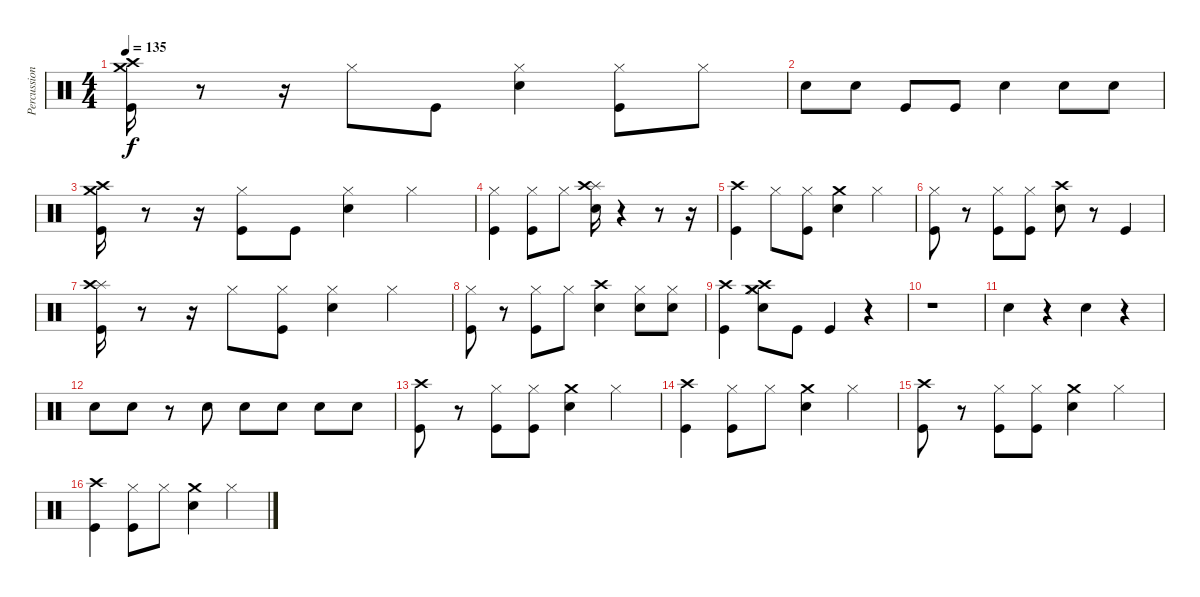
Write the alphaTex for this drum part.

\track ("Percussions" "Percussion") {instrument percussion}
\staff {score}
\articulation defaults
\ts (4 4)
\tempo 135
\clef neutral
\ks c
("Crash medium (hit)" "Crash high (hit)" "Kick (hit)").16{dy f} r.8 r.16 "Hi-Hat (closed)".8 "Kick (hit)".8 ("Hi-Hat (closed)" "Snare (hit) 2").4 ("Hi-Hat (closed)" "Kick (hit)").8 "Hi-Hat (closed)".8 |
"Snare (hit) 2".8 "Snare (hit) 2".8 "Kick (hit)".8 "Kick (hit)".8 "Snare (hit) 2".4 "Snare (hit) 2".8 "Snare (hit) 2".8 |
("Crash medium (hit)" "Kick (hit)" "Crash high (hit)").16 r.8 r.16 ("Hi-Hat (closed)" "Kick (hit)").8 "Kick (hit)".8 ("Hi-Hat (closed)" "Snare (hit) 2").4 "Hi-Hat (closed)".4 |
("Hi-Hat (closed)" "Kick (hit)").4 ("Hi-Hat (closed)" "Kick (hit)").8 "Hi-Hat (closed)".8 ("Splash (hit)" "Crash high (hit)" "Snare (hit) 2").16 r.4 r.8 r.16 |
("Crash high (hit)" "Kick (hit)").4 "Hi-Hat (closed)".8 ("Kick (hit)" "Hi-Hat (closed)").8 ("Snare (hit) 2" "Crash medium (hit)").4 "Hi-Hat (closed)".4 |
("Hi-Hat (closed)" "Kick (hit)").8 r.8 ("Kick (hit)" "Hi-Hat (closed)").8 ("Hi-Hat (closed)" "Kick (hit)").8 ("Crash high (hit)" "Snare (hit) 2").8 r.8 "Kick (hit)".4 |
("Splash (hit)" "Kick (hit)" "Crash high (hit)").16 r.8 r.16 "Hi-Hat (closed)".8 ("Kick (hit)" "Hi-Hat (closed)").8 ("Hi-Hat (closed)" "Snare (hit) 2").4 "Hi-Hat (closed)".4 |
("Hi-Hat (closed)" "Kick (hit)").8 r.8 ("Hi-Hat (closed)" "Kick (hit)").8 "Hi-Hat (closed)".8 ("Crash high (hit)" "Snare (hit) 2").4 ("Hi-Hat (closed)" "Snare (hit) 2").8 ("Hi-Hat (closed)" "Snare (hit) 2").8 |
("Crash high (hit)" "Kick (hit)").4 ("Crash high (hit)" "Snare (hit) 2" "Crash medium (hit)" "Hi-Hat (closed)").8 "Kick (hit)".8 "Kick (hit)".4 r.4 |
r.1 |
"Snare (hit) 2".4 r.4 "Snare (hit) 2".4 r.4 |
"Snare (hit) 2".8 "Snare (hit) 2".8 r.8 "Snare (hit) 2".8 "Snare (hit) 2".8 "Snare (hit) 2".8 "Snare (hit) 2".8 "Snare (hit) 2".8 |
("Crash high (hit)" "Kick (hit)").8 r.8 ("Kick (hit)" "Hi-Hat (closed)").8 ("Kick (hit)" "Hi-Hat (closed)").8 ("Crash medium (hit)" "Snare (hit) 2").4 "Hi-Hat (closed)".4 |
("Crash high (hit)" "Kick (hit)").4 ("Hi-Hat (closed)" "Kick (hit)").8 "Hi-Hat (closed)".8 ("Crash medium (hit)" "Snare (hit) 2").4 "Hi-Hat (closed)".4 |
("Crash high (hit)" "Kick (hit)").8 r.8 ("Kick (hit)" "Hi-Hat (closed)").8 ("Kick (hit)" "Hi-Hat (closed)").8 ("Crash medium (hit)" "Snare (hit) 2").4 "Hi-Hat (closed)".4 |
("Crash high (hit)" "Kick (hit)").4 ("Hi-Hat (closed)" "Kick (hit)").8 "Hi-Hat (closed)".8 ("Crash medium (hit)" "Snare (hit) 2").4 "Hi-Hat (closed)".4
